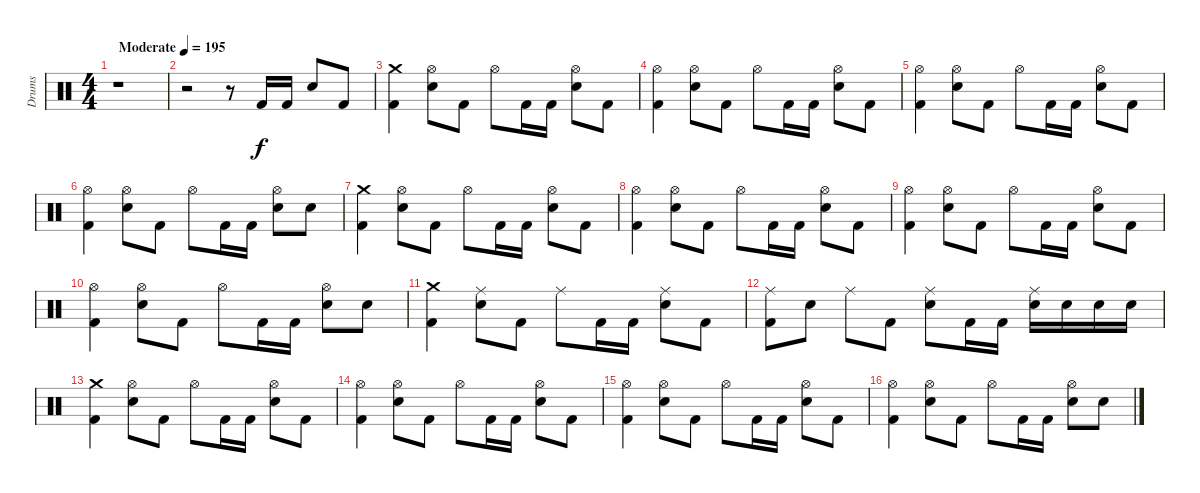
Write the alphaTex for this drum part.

\track ("Drums" "Drums") {instrument percussion}
\staff {score}
\articulation defaults
\ts (4 4)
\tempo (195 "Moderate")
\clef neutral
\ks c
r.1{dy f} |
r.2 r.8 "Kick (hit) 2".16 "Kick (hit) 2".16 "Electric Snare (hit)".8 "Kick (hit) 2".8 |
("Crash medium (hit)" "Kick (hit) 2").4 ("Hi-Hat (open)" "Electric Snare (hit)").8 "Kick (hit) 2".8 "Hi-Hat (open)".8 "Kick (hit) 2".16 "Kick (hit) 2".16 ("Hi-Hat (open)" "Electric Snare (hit)").8 "Kick (hit) 2".8 |
("Hi-Hat (open)" "Kick (hit) 2").4 ("Hi-Hat (open)" "Electric Snare (hit)").8 "Kick (hit) 2".8 "Hi-Hat (open)".8 "Kick (hit) 2".16 "Kick (hit) 2".16 ("Hi-Hat (open)" "Electric Snare (hit)").8 "Kick (hit) 2".8 |
("Hi-Hat (open)" "Kick (hit) 2").4 ("Hi-Hat (open)" "Electric Snare (hit)").8 "Kick (hit) 2".8 "Hi-Hat (open)".8 "Kick (hit) 2".16 "Kick (hit) 2".16 ("Hi-Hat (open)" "Electric Snare (hit)").8 "Kick (hit) 2".8 |
("Hi-Hat (open)" "Kick (hit) 2").4 ("Hi-Hat (open)" "Electric Snare (hit)").8 "Kick (hit) 2".8 "Hi-Hat (open)".8 "Kick (hit) 2".16 "Kick (hit) 2".16 ("Hi-Hat (open)" "Electric Snare (hit)").8 "Electric Snare (hit)".8 |
("Crash medium (hit)" "Kick (hit) 2").4 ("Hi-Hat (open)" "Electric Snare (hit)").8 "Kick (hit) 2".8 "Hi-Hat (open)".8 "Kick (hit) 2".16 "Kick (hit) 2".16 ("Hi-Hat (open)" "Electric Snare (hit)").8 "Kick (hit) 2".8 |
("Hi-Hat (open)" "Kick (hit) 2").4 ("Hi-Hat (open)" "Electric Snare (hit)").8 "Kick (hit) 2".8 "Hi-Hat (open)".8 "Kick (hit) 2".16 "Kick (hit) 2".16 ("Hi-Hat (open)" "Electric Snare (hit)").8 "Kick (hit) 2".8 |
("Hi-Hat (open)" "Kick (hit) 2").4 ("Hi-Hat (open)" "Electric Snare (hit)").8 "Kick (hit) 2".8 "Hi-Hat (open)".8 "Kick (hit) 2".16 "Kick (hit) 2".16 ("Hi-Hat (open)" "Electric Snare (hit)").8 "Kick (hit) 2".8 |
("Hi-Hat (open)" "Kick (hit) 2").4 ("Hi-Hat (open)" "Electric Snare (hit)").8 "Kick (hit) 2".8 "Hi-Hat (open)".8 "Kick (hit) 2".16 "Kick (hit) 2".16 ("Hi-Hat (open)" "Electric Snare (hit)").8 "Electric Snare (hit)".8 |
("Crash medium (hit)" "Kick (hit) 2").4 ("Ride (middle)" "Electric Snare (hit)").8 "Kick (hit) 2".8 "Ride (middle)".8 "Kick (hit) 2".16 "Kick (hit) 2".16 ("Ride (middle)" "Electric Snare (hit)").8 "Kick (hit) 2".8 |
("Ride (middle)" "Kick (hit) 2").8 "Electric Snare (hit)".8 "Ride (middle)".8 "Kick (hit) 2".8 ("Ride (middle)" "Electric Snare (hit)").8 "Kick (hit) 2".16 "Kick (hit) 2".16 ("Ride (middle)" "Electric Snare (hit)").16 "Electric Snare (hit)".16 "Electric Snare (hit)".16 "Electric Snare (hit)".16 |
("Crash medium (hit)" "Kick (hit) 2").4 ("Hi-Hat (open)" "Electric Snare (hit)").8 "Kick (hit) 2".8 "Hi-Hat (open)".8 "Kick (hit) 2".16 "Kick (hit) 2".16 ("Hi-Hat (open)" "Electric Snare (hit)").8 "Kick (hit) 2".8 |
("Hi-Hat (open)" "Kick (hit) 2").4 ("Hi-Hat (open)" "Electric Snare (hit)").8 "Kick (hit) 2".8 "Hi-Hat (open)".8 "Kick (hit) 2".16 "Kick (hit) 2".16 ("Hi-Hat (open)" "Electric Snare (hit)").8 "Kick (hit) 2".8 |
("Hi-Hat (open)" "Kick (hit) 2").4 ("Hi-Hat (open)" "Electric Snare (hit)").8 "Kick (hit) 2".8 "Hi-Hat (open)".8 "Kick (hit) 2".16 "Kick (hit) 2".16 ("Hi-Hat (open)" "Electric Snare (hit)").8 "Kick (hit) 2".8 |
("Hi-Hat (open)" "Kick (hit) 2").4 ("Hi-Hat (open)" "Electric Snare (hit)").8 "Kick (hit) 2".8 "Hi-Hat (open)".8 "Kick (hit) 2".16 "Kick (hit) 2".16 ("Hi-Hat (open)" "Electric Snare (hit)").8 "Electric Snare (hit)".8
